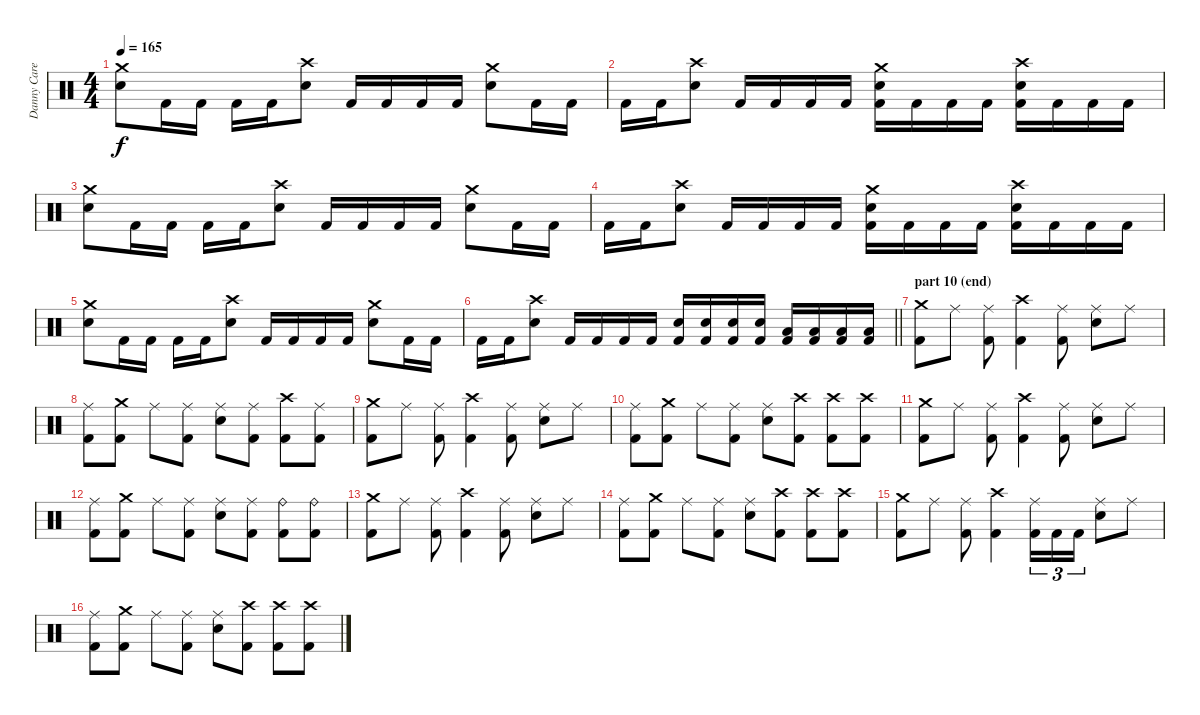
\track ("Danny Carey / drums" "Danny Care") {instrument percussion}
\staff {score}
\articulation defaults
\ts (4 4)
\tempo 165
\clef neutral
\ks c
("Crash medium (hit)" "Electric Snare (hit)").8{dy f} "Kick (hit) 2".16 "Kick (hit) 2".16 "Kick (hit) 2".16 "Kick (hit) 2".16 ("Crash high (hit)" "Electric Snare (hit)").8 "Kick (hit) 2".16 "Kick (hit) 2".16 "Kick (hit) 2".16 "Kick (hit) 2".16 ("Crash medium (hit)" "Electric Snare (hit)").8 "Kick (hit) 2".16 "Kick (hit) 2".16 |
"Kick (hit) 2".16 "Kick (hit) 2".16 ("Crash high (hit)" "Electric Snare (hit)").8 "Kick (hit) 2".16 "Kick (hit) 2".16 "Kick (hit) 2".16 "Kick (hit) 2".16 ("Crash medium (hit)" "Electric Snare (hit)" "Kick (hit) 2").16 "Kick (hit) 2".16 "Kick (hit) 2".16 "Kick (hit) 2".16 ("Crash high (hit)" "Electric Snare (hit)" "Kick (hit) 2").16 "Kick (hit) 2".16 "Kick (hit) 2".16 "Kick (hit) 2".16 |
("Crash medium (hit)" "Electric Snare (hit)").8 "Kick (hit) 2".16 "Kick (hit) 2".16 "Kick (hit) 2".16 "Kick (hit) 2".16 ("Crash high (hit)" "Electric Snare (hit)").8 "Kick (hit) 2".16 "Kick (hit) 2".16 "Kick (hit) 2".16 "Kick (hit) 2".16 ("Crash medium (hit)" "Electric Snare (hit)").8 "Kick (hit) 2".16 "Kick (hit) 2".16 |
"Kick (hit) 2".16 "Kick (hit) 2".16 ("Crash high (hit)" "Electric Snare (hit)").8 "Kick (hit) 2".16 "Kick (hit) 2".16 "Kick (hit) 2".16 "Kick (hit) 2".16 ("Crash medium (hit)" "Electric Snare (hit)" "Kick (hit) 2").16 "Kick (hit) 2".16 "Kick (hit) 2".16 "Kick (hit) 2".16 ("Crash high (hit)" "Electric Snare (hit)" "Kick (hit) 2").16 "Kick (hit) 2".16 "Kick (hit) 2".16 "Kick (hit) 2".16 |
("Crash medium (hit)" "Electric Snare (hit)").8 "Kick (hit) 2".16 "Kick (hit) 2".16 "Kick (hit) 2".16 "Kick (hit) 2".16 ("Crash high (hit)" "Electric Snare (hit)").8 "Kick (hit) 2".16 "Kick (hit) 2".16 "Kick (hit) 2".16 "Kick (hit) 2".16 ("Crash medium (hit)" "Electric Snare (hit)").8 "Kick (hit) 2".16 "Kick (hit) 2".16 |
\barLineRight lightlight "Kick (hit) 2".16 "Kick (hit) 2".16
("Crash high (hit)" "Electric Snare (hit)").8 "Kick (hit) 2".16 "Kick (hit) 2".16 "Kick (hit) 2".16 "Kick (hit) 2".16 ("Electric Snare (hit)" "Kick (hit) 2").16 ("Electric Snare (hit)" "Kick (hit) 2").16 ("Electric Snare (hit)" "Kick (hit) 2").16 ("Electric Snare (hit)" "Kick (hit) 2").16 ("Low Floor Tom (hit)" "Kick (hit) 2").16 ("Low Floor Tom (hit)" "Kick (hit) 2").16 ("Low Floor Tom (hit)" "Kick (hit) 2").16 ("Low Floor Tom (hit)" "Kick (hit) 2").16 |
\section ("" "part 10 (end)")
("Crash medium (hit)" "Kick (hit) 2").8 "Ride (middle)".8 ("Ride (middle)" "Kick (hit) 2").8 ("Crash high (hit)" "Kick (hit) 2").4 ("Ride (middle)" "Kick (hit) 2").8 ("Ride (middle)" "Electric Snare (hit)").8 "Ride (middle)".8 |
("Ride (middle)" "Kick (hit) 2").8 ("Crash medium (hit)" "Kick (hit) 2").8 "Ride (middle)".8 ("Ride (middle)" "Kick (hit) 2").8 ("Ride (middle)" "Electric Snare (hit)").8 ("Ride (middle)" "Kick (hit) 2").8 ("Crash high (hit)" "Kick (hit) 2").8 ("Ride (middle)" "Kick (hit) 2").8 |
("Crash medium (hit)" "Kick (hit) 2").8 "Ride (middle)".8 ("Ride (middle)" "Kick (hit) 2").8 ("Crash high (hit)" "Kick (hit) 2").4 ("Ride (middle)" "Kick (hit) 2").8 ("Ride (middle)" "Electric Snare (hit)").8 "Ride (middle)".8 |
("Ride (middle)" "Kick (hit) 2").8 ("Crash medium (hit)" "Kick (hit) 2").8 "Ride (middle)".8 ("Ride (middle)" "Kick (hit) 2").8 ("Ride (middle)" "Electric Snare (hit)").8 ("Crash high (hit)" "Kick (hit) 2").8 ("Crash high (hit)" "Kick (hit) 2").8 ("Crash high (hit)" "Kick (hit) 2").8 |
("Crash medium (hit)" "Kick (hit) 2").8 "Ride (middle)".8 ("Ride (middle)" "Kick (hit) 2").8 ("Crash high (hit)" "Kick (hit) 2").4 ("Ride (middle)" "Kick (hit) 2").8 ("Ride (middle)" "Electric Snare (hit)").8 "Ride (middle)".8 |
("Ride (middle)" "Kick (hit) 2").8 ("Crash medium (hit)" "Kick (hit) 2").8 "Ride (middle)".8 ("Ride (middle)" "Kick (hit) 2").8 ("Ride (middle)" "Electric Snare (hit)").8 ("Ride (middle)" "Kick (hit) 2").8 ("Ride (bell)" "Kick (hit) 2").8 ("Ride (bell)" "Kick (hit) 2").8 |
("Crash medium (hit)" "Kick (hit) 2").8 "Ride (middle)".8 ("Ride (middle)" "Kick (hit) 2").8 ("Crash high (hit)" "Kick (hit) 2").4 ("Ride (middle)" "Kick (hit) 2").8 ("Ride (middle)" "Electric Snare (hit)").8 "Ride (middle)".8 |
("Ride (middle)" "Kick (hit) 2").8 ("Crash medium (hit)" "Kick (hit) 2").8 "Ride (middle)".8 ("Ride (middle)" "Kick (hit) 2").8 ("Ride (middle)" "Electric Snare (hit)").8 ("Crash high (hit)" "Kick (hit) 2").8 ("Crash high (hit)" "Kick (hit) 2").8 ("Crash high (hit)" "Kick (hit) 2").8 |
("Crash medium (hit)" "Kick (hit) 2").8 "Ride (middle)".8 ("Ride (middle)" "Kick (hit) 2").8 ("Crash high (hit)" "Kick (hit) 2").4 ("Ride (middle)" "Kick (hit) 2").16{tu (3 2)} "Kick (hit) 2".16{tu (3 2)} "Kick (hit) 2".16{tu (3 2)} ("Ride (middle)" "Electric Snare (hit)").8 "Ride (middle)".8 |
("Ride (middle)" "Kick (hit) 2").8 ("Crash medium (hit)" "Kick (hit) 2").8 "Ride (middle)".8 ("Ride (middle)" "Kick (hit) 2").8 ("Ride (middle)" "Electric Snare (hit)").8 ("Crash high (hit)" "Kick (hit) 2").8 ("Crash high (hit)" "Kick (hit) 2").8 ("Crash high (hit)" "Kick (hit) 2").8
